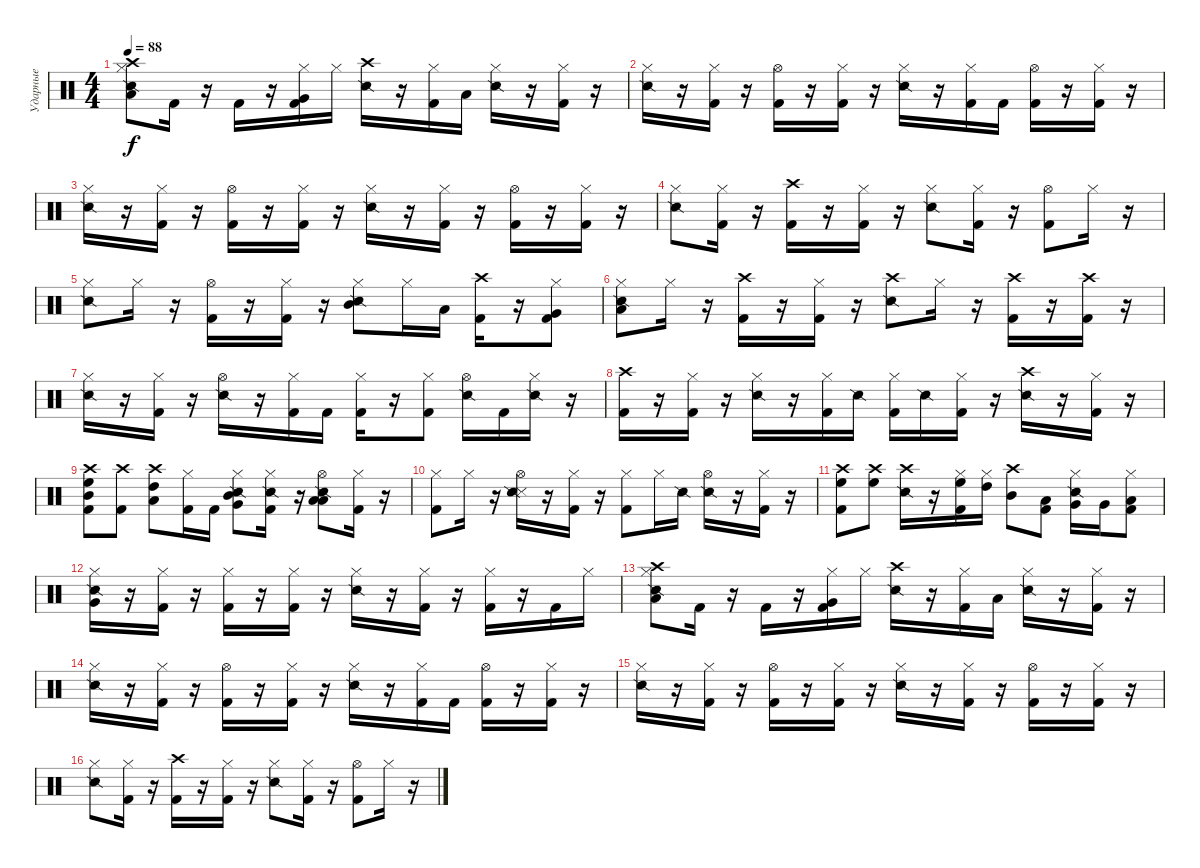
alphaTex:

\track ("Ударные" "Ударные") {instrument percussion}
\staff {score}
\articulation defaults
\ts (4 4)
\tempo 88
\clef neutral
\ks c
("Crash high (hit)" "Hi-Hat (closed)" "Low Tom (hit)" "Snare (side stick) 2").8{dy f} "Kick (hit) 2".16 r.16 "Kick (hit) 2".16 r.16 ("Hi-Hat (closed)" "Kick (hit) 2" "Very Low Tom (hit)").16 "Hi-Hat (closed)".16 ("Crash high (hit)" "Snare (side stick) 2").16 r.16 ("Hi-Hat (closed)" "Kick (hit) 2").16 "Low Floor Tom (hit)".16 ("Hi-Hat (closed)" "Snare (side stick) 2").16 r.16 ("Hi-Hat (closed)" "Kick (hit) 2").16 r.16 |
("Hi-Hat (closed)" "Snare (side stick) 2").16 r.16 ("Hi-Hat (closed)" "Kick (hit) 2").16 r.16 ("Kick (hit) 2" "Hi-Hat (open)").16 r.16 ("Kick (hit) 2" "Hi-Hat (closed)").16 r.16 ("Hi-Hat (closed)" "Snare (side stick) 2").16 r.16 ("Kick (hit) 2" "Hi-Hat (closed)").16 "Kick (hit) 2".16 ("Hi-Hat (open)" "Kick (hit) 2").16 r.16 ("Kick (hit) 2" "Hi-Hat (closed)").16 r.16 |
("Hi-Hat (closed)" "Snare (side stick) 2").16 r.16 ("Kick (hit) 2" "Hi-Hat (closed)").16 r.16 ("Kick (hit) 2" "Hi-Hat (open)").16 r.16 ("Kick (hit) 2" "Hi-Hat (closed)").16 r.16 ("Hi-Hat (closed)" "Snare (side stick) 2").16 r.16 ("Kick (hit) 2" "Hi-Hat (closed)").16 r.16 ("Kick (hit) 2" "Hi-Hat (open)").16 r.16 ("Kick (hit) 2" "Hi-Hat (closed)").16 r.16 |
("Hi-Hat (closed)" "Snare (side stick) 2").8 ("Kick (hit) 2" "Hi-Hat (closed)").16 r.16 ("Crash high (hit)" "Kick (hit) 2").16 r.16 ("Hi-Hat (closed)" "Kick (hit) 2").16 r.16 ("Hi-Hat (closed)" "Snare (side stick) 2").8 ("Hi-Hat (closed)" "Kick (hit) 2").16 r.16 ("Hi-Hat (open)" "Kick (hit) 2").8 "Hi-Hat (closed)".16 r.16 |
("Hi-Hat (closed)" "Snare (side stick) 2").8 "Hi-Hat (closed)".16 r.16 ("Hi-Hat (open)" "Kick (hit) 2").16 r.16 ("Hi-Hat (closed)" "Kick (hit) 2").16 r.16 ("Mid Tom (hit)" "Hi-Hat (closed)" "Snare (side stick) 2").8 "Hi-Hat (closed)".16 "Low Tom (hit)".16 ("Crash high (hit)" "Kick (hit) 2").16 r.16 ("Hi-Hat (closed)" "Very Low Tom (hit)" "Kick (hit) 2").8 |
("Hi-Hat (closed)" "Low Floor Tom (hit)" "Snare (side stick) 2").8 "Hi-Hat (closed)".16 r.16 ("Crash high (hit)" "Kick (hit) 2").16 r.16 ("Hi-Hat (closed)" "Kick (hit) 2").16 r.16 ("Crash high (hit)" "Snare (side stick) 2").8 "Hi-Hat (closed)".16 r.16 ("Kick (hit) 2" "Crash high (hit)").16 r.16 ("Crash high (hit)" "Kick (hit) 2").16 r.16 |
("Hi-Hat (closed)" "Snare (side stick) 2").16 r.16 ("Hi-Hat (closed)" "Kick (hit) 2").16 r.16 ("Hi-Hat (open)" "Snare (side stick) 2").16 r.16 ("Kick (hit) 2" "Hi-Hat (closed)").16 "Kick (hit) 2".16 ("Kick (hit) 2" "Hi-Hat (closed)").16 r.16 ("Kick (hit) 2" "Hi-Hat (closed)").8 ("Hi-Hat (open)" "Snare (side stick) 2").16 "Kick (hit) 2".16 ("Hi-Hat (closed)" "Snare (side stick) 2").16 r.16 |
("Kick (hit) 2" "Crash high (hit)").16 r.16 ("Kick (hit) 2" "Hi-Hat (closed)").16 r.16 ("Hi-Hat (closed)" "Snare (side stick) 2").16 r.16 ("Kick (hit) 2" "Hi-Hat (closed)").16 "Snare (side stick) 2".16 ("Hi-Hat (closed)" "Kick (hit) 2").16 "Snare (side stick) 2".16 ("Kick (hit) 2" "Hi-Hat (closed)").16 r.16 ("Crash high (hit)" "Snare (side stick) 2").16 r.16 ("Kick (hit) 2" "Hi-Hat (closed)").16 r.16 |
("Mid Tom (hit)" "Kick (hit) 2" "Crash high (hit)" "High Floor Tom (hit)").8 ("Crash high (hit)" "Kick (hit) 2").8 ("Crash high (hit)" "Low Tom (hit)" "High Tom (hit)").8 ("Hi-Hat (closed)" "Kick (hit) 2").16 "Kick (hit) 2".16 ("Very Low Tom (hit)" "Hi-Hat (closed)" "Mid Tom (hit)" "Snare (side stick) 2").8 ("Hi-Hat (closed)" "Kick (hit) 2" "Snare (side stick) 2").16 r.16 ("Low Tom (hit)" "Low Floor Tom (hit)" "Hi-Hat (open)" "Snare (side stick) 2").8 ("Hi-Hat (closed)" "Kick (hit) 2").16 r.16 |
("Hi-Hat (closed)" "Kick (hit) 2").8 "Hi-Hat (closed)".16 r.16 ("Snare (side stick) 3" "Hi-Hat (open)" "Snare (side stick) 2").16 r.16 ("Hi-Hat (closed)" "Kick (hit) 2").16 r.16 ("Kick (hit) 2" "Hi-Hat (closed)").8 "Hi-Hat (closed)".16 "Snare (side stick) 2".16 ("Hi-Hat (open)" "Snare (side stick) 2").16 r.16 ("Kick (hit) 2" "Hi-Hat (closed)").16 r.16 |
("High Floor Tom (hit)" "Crash high (hit)" "Kick (hit) 2").8 ("High Floor Tom (hit)" "Crash high (hit)").8 ("Crash high (hit)" "Snare (side stick) 2").16 r.16 ("Hi-Hat (closed)" "Kick (hit) 2" "High Floor Tom (hit)").16 ("High Tom (hit)" "Hi-Hat (closed)").16 ("Mid Tom (hit)" "Crash high (hit)").8 ("Kick (hit) 2" "Low Tom (hit)").8 ("Very Low Tom (hit)" "Hi-Hat (closed)" "Snare (side stick) 2").16 "Very Low Tom (hit)".16 ("Low Floor Tom (hit)" "Kick (hit) 2" "Hi-Hat (closed)").8 |
("Very Low Tom (hit)" "Hi-Hat (closed)" "Snare (side stick) 2").16 r.16 ("Kick (hit) 2" "Hi-Hat (closed)").16 r.16 ("Kick (hit) 2" "Hi-Hat (closed)").16 r.16 ("Hi-Hat (closed)" "Kick (hit) 2").16 r.16 ("Hi-Hat (closed)" "Snare (side stick) 2").16 r.16 ("Hi-Hat (closed)" "Kick (hit) 2").16 r.16 ("Hi-Hat (closed)" "Kick (hit) 2").16 r.16 "Kick (hit) 2".16 "Hi-Hat (closed)".16 |
("Crash high (hit)" "Hi-Hat (closed)" "Low Tom (hit)" "Snare (side stick) 2").8 "Kick (hit) 2".16 r.16 "Kick (hit) 2".16 r.16 ("Hi-Hat (closed)" "Kick (hit) 2" "Very Low Tom (hit)").16 "Hi-Hat (closed)".16 ("Crash high (hit)" "Snare (side stick) 2").16 r.16 ("Hi-Hat (closed)" "Kick (hit) 2").16 "Low Floor Tom (hit)".16 ("Hi-Hat (closed)" "Snare (side stick) 2").16 r.16 ("Hi-Hat (closed)" "Kick (hit) 2").16 r.16 |
("Hi-Hat (closed)" "Snare (side stick) 2").16 r.16 ("Hi-Hat (closed)" "Kick (hit) 2").16 r.16 ("Kick (hit) 2" "Hi-Hat (open)").16 r.16 ("Kick (hit) 2" "Hi-Hat (closed)").16 r.16 ("Hi-Hat (closed)" "Snare (side stick) 2").16 r.16 ("Kick (hit) 2" "Hi-Hat (closed)").16 "Kick (hit) 2".16 ("Hi-Hat (open)" "Kick (hit) 2").16 r.16 ("Kick (hit) 2" "Hi-Hat (closed)").16 r.16 |
("Hi-Hat (closed)" "Snare (side stick) 2").16 r.16 ("Kick (hit) 2" "Hi-Hat (closed)").16 r.16 ("Kick (hit) 2" "Hi-Hat (open)").16 r.16 ("Kick (hit) 2" "Hi-Hat (closed)").16 r.16 ("Hi-Hat (closed)" "Snare (side stick) 2").16 r.16 ("Kick (hit) 2" "Hi-Hat (closed)").16 r.16 ("Kick (hit) 2" "Hi-Hat (open)").16 r.16 ("Kick (hit) 2" "Hi-Hat (closed)").16 r.16 |
("Hi-Hat (closed)" "Snare (side stick) 2").8 ("Kick (hit) 2" "Hi-Hat (closed)").16 r.16 ("Crash high (hit)" "Kick (hit) 2").16 r.16 ("Hi-Hat (closed)" "Kick (hit) 2").16 r.16 ("Hi-Hat (closed)" "Snare (side stick) 2").8 ("Hi-Hat (closed)" "Kick (hit) 2").16 r.16 ("Hi-Hat (open)" "Kick (hit) 2").8 "Hi-Hat (closed)".16 r.16
